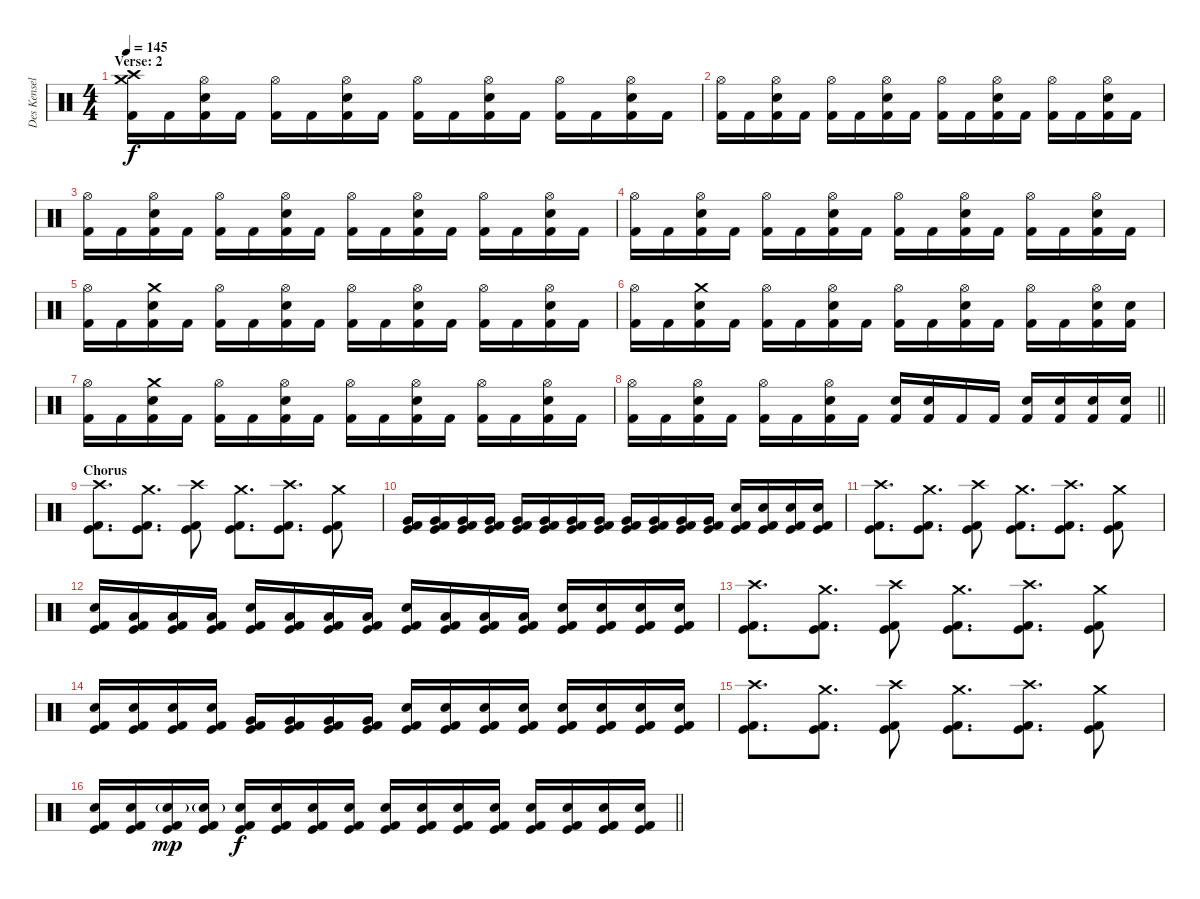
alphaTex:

\track ("Des Kensel" "Des Kensel") {instrument percussion}
\staff {score}
\articulation defaults
\ts (4 4)
\section ("" "Verse: 2")
\tempo 145
\clef neutral
\ks c
("Crash medium (hit)" "Crash high (hit)" "Kick (hit) 2").16{dy f} "Kick (hit) 2".16 ("Hi-Hat (open)" "Electric Snare (hit)" "Kick (hit) 2").16 "Kick (hit) 2".16 ("Hi-Hat (open)" "Kick (hit) 2").16 "Kick (hit) 2".16 ("Hi-Hat (open)" "Electric Snare (hit)" "Kick (hit) 2").16 "Kick (hit) 2".16 ("Hi-Hat (open)" "Kick (hit) 2").16 "Kick (hit) 2".16 ("Hi-Hat (open)" "Electric Snare (hit)" "Kick (hit) 2").16 "Kick (hit) 2".16 ("Hi-Hat (open)" "Kick (hit) 2").16 "Kick (hit) 2".16 ("Hi-Hat (open)" "Electric Snare (hit)" "Kick (hit) 2").16 "Kick (hit) 2".16 |
("Hi-Hat (open)" "Kick (hit) 2").16 "Kick (hit) 2".16 ("Hi-Hat (open)" "Electric Snare (hit)" "Kick (hit) 2").16 "Kick (hit) 2".16 ("Hi-Hat (open)" "Kick (hit) 2").16 "Kick (hit) 2".16 ("Hi-Hat (open)" "Electric Snare (hit)" "Kick (hit) 2").16 "Kick (hit) 2".16 ("Hi-Hat (open)" "Kick (hit) 2").16 "Kick (hit) 2".16 ("Hi-Hat (open)" "Electric Snare (hit)" "Kick (hit) 2").16 "Kick (hit) 2".16 ("Hi-Hat (open)" "Kick (hit) 2").16 "Kick (hit) 2".16 ("Hi-Hat (open)" "Electric Snare (hit)" "Kick (hit) 2").16 "Kick (hit) 2".16 |
("Hi-Hat (open)" "Kick (hit) 2").16 "Kick (hit) 2".16 ("Hi-Hat (open)" "Electric Snare (hit)" "Kick (hit) 2").16 "Kick (hit) 2".16 ("Hi-Hat (open)" "Kick (hit) 2").16 "Kick (hit) 2".16 ("Hi-Hat (open)" "Electric Snare (hit)" "Kick (hit) 2").16 "Kick (hit) 2".16 ("Hi-Hat (open)" "Kick (hit) 2").16 "Kick (hit) 2".16 ("Hi-Hat (open)" "Electric Snare (hit)" "Kick (hit) 2").16 "Kick (hit) 2".16 ("Hi-Hat (open)" "Kick (hit) 2").16 "Kick (hit) 2".16 ("Hi-Hat (open)" "Electric Snare (hit)" "Kick (hit) 2").16 "Kick (hit) 2".16 |
("Hi-Hat (open)" "Kick (hit) 2").16 "Kick (hit) 2".16 ("Hi-Hat (open)" "Electric Snare (hit)" "Kick (hit) 2").16 "Kick (hit) 2".16 ("Hi-Hat (open)" "Kick (hit) 2").16 "Kick (hit) 2".16 ("Hi-Hat (open)" "Electric Snare (hit)" "Kick (hit) 2").16 "Kick (hit) 2".16 ("Hi-Hat (open)" "Kick (hit) 2").16 "Kick (hit) 2".16 ("Hi-Hat (open)" "Electric Snare (hit)" "Kick (hit) 2").16 "Kick (hit) 2".16 ("Hi-Hat (open)" "Kick (hit) 2").16 "Kick (hit) 2".16 ("Hi-Hat (open)" "Electric Snare (hit)" "Kick (hit) 2").16 "Kick (hit) 2".16 |
("Hi-Hat (open)" "Kick (hit) 2").16 "Kick (hit) 2".16 ("Crash medium (hit)" "Electric Snare (hit)" "Kick (hit) 2").16 "Kick (hit) 2".16 ("Hi-Hat (open)" "Kick (hit) 2").16 "Kick (hit) 2".16 ("Hi-Hat (open)" "Electric Snare (hit)" "Kick (hit) 2").16 "Kick (hit) 2".16 ("Hi-Hat (open)" "Kick (hit) 2").16 "Kick (hit) 2".16 ("Hi-Hat (open)" "Electric Snare (hit)" "Kick (hit) 2").16 "Kick (hit) 2".16 ("Hi-Hat (open)" "Kick (hit) 2").16 "Kick (hit) 2".16 ("Hi-Hat (open)" "Electric Snare (hit)" "Kick (hit) 2").16 "Kick (hit) 2".16 |
("Hi-Hat (open)" "Kick (hit) 2").16 "Kick (hit) 2".16 ("Crash medium (hit)" "Electric Snare (hit)" "Kick (hit) 2").16 "Kick (hit) 2".16 ("Hi-Hat (open)" "Kick (hit) 2").16 "Kick (hit) 2".16 ("Hi-Hat (open)" "Electric Snare (hit)" "Kick (hit) 2").16 "Kick (hit) 2".16 ("Hi-Hat (open)" "Kick (hit) 2").16 "Kick (hit) 2".16 ("Hi-Hat (open)" "Electric Snare (hit)" "Kick (hit) 2").16 "Kick (hit) 2".16 ("Hi-Hat (open)" "Kick (hit) 2").16 "Kick (hit) 2".16 ("Hi-Hat (open)" "Electric Snare (hit)" "Kick (hit) 2").16 ("Electric Snare (hit)" "Kick (hit) 2").16 |
("Hi-Hat (open)" "Kick (hit) 2").16 "Kick (hit) 2".16 ("Crash medium (hit)" "Electric Snare (hit)" "Kick (hit) 2").16 "Kick (hit) 2".16 ("Hi-Hat (open)" "Kick (hit) 2").16 "Kick (hit) 2".16 ("Hi-Hat (open)" "Electric Snare (hit)" "Kick (hit) 2").16 "Kick (hit) 2".16 ("Hi-Hat (open)" "Kick (hit) 2").16 "Kick (hit) 2".16 ("Hi-Hat (open)" "Electric Snare (hit)" "Kick (hit) 2").16 "Kick (hit) 2".16 ("Hi-Hat (open)" "Kick (hit) 2").16 "Kick (hit) 2".16 ("Hi-Hat (open)" "Electric Snare (hit)" "Kick (hit) 2").16 "Kick (hit) 2".16 |
\barLineRight lightlight
("Hi-Hat (open)" "Kick (hit) 2").16 "Kick (hit) 2".16 ("Hi-Hat (open)" "Electric Snare (hit)" "Kick (hit) 2").16 "Kick (hit) 2".16 ("Hi-Hat (open)" "Kick (hit) 2").16 "Kick (hit) 2".16 ("Hi-Hat (open)" "Electric Snare (hit)" "Kick (hit) 2").16 "Kick (hit) 2".16 ("Electric Snare (hit)" "Kick (hit) 2").16 ("Electric Snare (hit)" "Kick (hit) 2").16 "Kick (hit) 2".16 "Kick (hit) 2".16 ("Electric Snare (hit)" "Kick (hit) 2").16 ("Electric Snare (hit)" "Kick (hit) 2").16 ("Electric Snare (hit)" "Kick (hit) 2").16 ("Electric Snare (hit)" "Kick (hit) 2").16 |
\section ("" "Chorus")
("Crash high (hit)" "Kick (hit)" "Kick (hit) 2").8{d} ("Crash medium (hit)" "Kick (hit)" "Kick (hit) 2").8{d} ("Crash high (hit)" "Kick (hit)" "Kick (hit) 2").8 ("Crash medium (hit)" "Kick (hit)" "Kick (hit) 2").8{d} ("Crash high (hit)" "Kick (hit)" "Kick (hit) 2").8{d} ("Crash medium (hit)" "Kick (hit)" "Kick (hit) 2").8 |
("Very Low Tom (hit)" "Kick (hit)" "Kick (hit) 2").16 ("Very Low Tom (hit)" "Kick (hit)" "Kick (hit) 2").16 ("Very Low Tom (hit)" "Kick (hit)" "Kick (hit) 2").16 ("Very Low Tom (hit)" "Kick (hit)" "Kick (hit) 2").16 ("Very Low Tom (hit)" "Kick (hit)" "Kick (hit) 2").16 ("Very Low Tom (hit)" "Kick (hit)" "Kick (hit) 2").16 ("Very Low Tom (hit)" "Kick (hit)" "Kick (hit) 2").16 ("Very Low Tom (hit)" "Kick (hit)" "Kick (hit) 2").16 ("Very Low Tom (hit)" "Kick (hit)" "Kick (hit) 2").16 ("Very Low Tom (hit)" "Kick (hit)" "Kick (hit) 2").16 ("Very Low Tom (hit)" "Kick (hit)" "Kick (hit) 2").16 ("Very Low Tom (hit)" "Kick (hit)" "Kick (hit) 2").16 ("Electric Snare (hit)" "Kick (hit)" "Kick (hit) 2").16 ("Electric Snare (hit)" "Kick (hit)" "Kick (hit) 2").16 ("Electric Snare (hit)" "Kick (hit)" "Kick (hit) 2").16 ("Electric Snare (hit)" "Kick (hit)" "Kick (hit) 2").16 |
("Crash high (hit)" "Kick (hit)" "Kick (hit) 2").8{d} ("Crash medium (hit)" "Kick (hit)" "Kick (hit) 2").8{d} ("Crash high (hit)" "Kick (hit)" "Kick (hit) 2").8 ("Crash medium (hit)" "Kick (hit)" "Kick (hit) 2").8{d} ("Crash high (hit)" "Kick (hit)" "Kick (hit) 2").8{d} ("Crash medium (hit)" "Kick (hit)" "Kick (hit) 2").8 |
("Electric Snare (hit)" "Kick (hit)" "Kick (hit) 2").16 ("Low Tom (hit)" "Kick (hit)" "Kick (hit) 2").16 ("Low Tom (hit)" "Kick (hit)" "Kick (hit) 2").16 ("Low Tom (hit)" "Kick (hit)" "Kick (hit) 2").16 ("Electric Snare (hit)" "Kick (hit)" "Kick (hit) 2").16 ("Low Tom (hit)" "Kick (hit)" "Kick (hit) 2").16 ("Low Tom (hit)" "Kick (hit)" "Kick (hit) 2").16 ("Low Tom (hit)" "Kick (hit)" "Kick (hit) 2").16 ("Electric Snare (hit)" "Kick (hit)" "Kick (hit) 2").16 ("Low Tom (hit)" "Kick (hit)" "Kick (hit) 2").16 ("Low Tom (hit)" "Kick (hit)" "Kick (hit) 2").16 ("Low Tom (hit)" "Kick (hit)" "Kick (hit) 2").16 ("Electric Snare (hit)" "Kick (hit)" "Kick (hit) 2").16 ("Electric Snare (hit)" "Kick (hit)" "Kick (hit) 2").16 ("Electric Snare (hit)" "Kick (hit)" "Kick (hit) 2").16 ("Electric Snare (hit)" "Kick (hit)" "Kick (hit) 2").16 |
("Crash high (hit)" "Kick (hit)" "Kick (hit) 2").8{d} ("Crash medium (hit)" "Kick (hit)" "Kick (hit) 2").8{d} ("Crash high (hit)" "Kick (hit)" "Kick (hit) 2").8 ("Crash medium (hit)" "Kick (hit)" "Kick (hit) 2").8{d} ("Crash high (hit)" "Kick (hit)" "Kick (hit) 2").8{d} ("Crash medium (hit)" "Kick (hit)" "Kick (hit) 2").8 |
("Electric Snare (hit)" "Kick (hit)" "Kick (hit) 2").16 ("Electric Snare (hit)" "Kick (hit)" "Kick (hit) 2").16 ("Electric Snare (hit)" "Kick (hit)" "Kick (hit) 2").16 ("Electric Snare (hit)" "Kick (hit)" "Kick (hit) 2").16 ("Very Low Tom (hit)" "Kick (hit)" "Kick (hit) 2").16 ("Very Low Tom (hit)" "Kick (hit)" "Kick (hit) 2").16 ("Very Low Tom (hit)" "Kick (hit)" "Kick (hit) 2").16 ("Very Low Tom (hit)" "Kick (hit)" "Kick (hit) 2").16 ("Electric Snare (hit)" "Kick (hit)" "Kick (hit) 2").16 ("Electric Snare (hit)" "Kick (hit)" "Kick (hit) 2").16 ("Electric Snare (hit)" "Kick (hit)" "Kick (hit) 2").16 ("Electric Snare (hit)" "Kick (hit)" "Kick (hit) 2").16 ("Electric Snare (hit)" "Kick (hit)" "Kick (hit) 2").16 ("Electric Snare (hit)" "Kick (hit)" "Kick (hit) 2").16 ("Electric Snare (hit)" "Kick (hit)" "Kick (hit) 2").16 ("Electric Snare (hit)" "Kick (hit)" "Kick (hit) 2").16 |
("Crash high (hit)" "Kick (hit)" "Kick (hit) 2").8{d} ("Crash medium (hit)" "Kick (hit)" "Kick (hit) 2").8{d} ("Crash high (hit)" "Kick (hit)" "Kick (hit) 2").8 ("Crash medium (hit)" "Kick (hit)" "Kick (hit) 2").8{d} ("Crash high (hit)" "Kick (hit)" "Kick (hit) 2").8{d} ("Crash medium (hit)" "Kick (hit)" "Kick (hit) 2").8 |
\barLineRight lightlight
("Electric Snare (hit)" "Kick (hit)" "Kick (hit) 2").16 ("Electric Snare (hit)" "Kick (hit)" "Kick (hit) 2").16 ("Electric Snare (hit)"{g} "Kick (hit)" "Kick (hit) 2").16{dy mp} ("Electric Snare (hit)"{g} "Kick (hit)" "Kick (hit) 2").16 ("Electric Snare (hit)" "Kick (hit)" "Kick (hit) 2").16{dy f} ("Electric Snare (hit)" "Kick (hit)" "Kick (hit) 2").16 ("Electric Snare (hit)" "Kick (hit)" "Kick (hit) 2").16 ("Electric Snare (hit)" "Kick (hit)" "Kick (hit) 2").16 ("Electric Snare (hit)" "Kick (hit)" "Kick (hit) 2").16 ("Electric Snare (hit)" "Kick (hit)" "Kick (hit) 2").16 ("Electric Snare (hit)" "Kick (hit)" "Kick (hit) 2").16 ("Electric Snare (hit)" "Kick (hit)" "Kick (hit) 2").16 ("Electric Snare (hit)" "Kick (hit)" "Kick (hit) 2").16 ("Electric Snare (hit)" "Kick (hit)" "Kick (hit) 2").16 ("Electric Snare (hit)" "Kick (hit)" "Kick (hit) 2").16 ("Electric Snare (hit)" "Kick (hit)" "Kick (hit) 2").16
